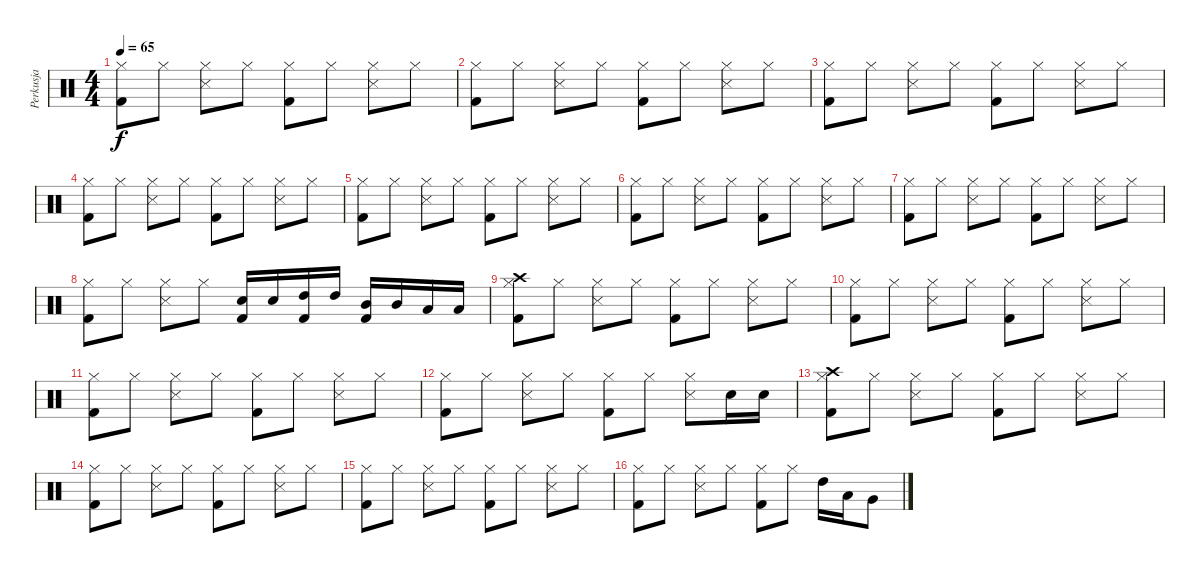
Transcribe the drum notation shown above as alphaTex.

\track ("Perkusja" "Perkusja") {instrument percussion}
\staff {score}
\articulation defaults
\ts (4 4)
\tempo 65
\clef neutral
\ks c
("Kick (hit) 2" "Hi-Hat (closed)").8{dy f} "Hi-Hat (closed)".8 ("Snare (side stick) 3" "Hi-Hat (closed)").8 "Hi-Hat (closed)".8 ("Kick (hit) 2" "Hi-Hat (closed)").8 "Hi-Hat (closed)".8 ("Snare (side stick) 3" "Hi-Hat (closed)").8 "Hi-Hat (closed)".8 |
("Kick (hit) 2" "Hi-Hat (closed)").8 "Hi-Hat (closed)".8 ("Snare (side stick) 3" "Hi-Hat (closed)").8 "Hi-Hat (closed)".8 ("Kick (hit) 2" "Hi-Hat (closed)").8 "Hi-Hat (closed)".8 ("Snare (side stick) 3" "Hi-Hat (closed)").8 "Hi-Hat (closed)".8 |
("Kick (hit) 2" "Hi-Hat (closed)").8 "Hi-Hat (closed)".8 ("Snare (side stick) 3" "Hi-Hat (closed)").8 "Hi-Hat (closed)".8 ("Kick (hit) 2" "Hi-Hat (closed)").8 "Hi-Hat (closed)".8 ("Snare (side stick) 3" "Hi-Hat (closed)").8 "Hi-Hat (closed)".8 |
("Kick (hit) 2" "Hi-Hat (closed)").8 "Hi-Hat (closed)".8 ("Snare (side stick) 3" "Hi-Hat (closed)").8 "Hi-Hat (closed)".8 ("Kick (hit) 2" "Hi-Hat (closed)").8 "Hi-Hat (closed)".8 ("Snare (side stick) 3" "Hi-Hat (closed)").8 "Hi-Hat (closed)".8 |
("Kick (hit) 2" "Hi-Hat (closed)").8 "Hi-Hat (closed)".8 ("Snare (side stick) 3" "Hi-Hat (closed)").8 "Hi-Hat (closed)".8 ("Kick (hit) 2" "Hi-Hat (closed)").8 "Hi-Hat (closed)".8 ("Snare (side stick) 3" "Hi-Hat (closed)").8 "Hi-Hat (closed)".8 |
("Kick (hit) 2" "Hi-Hat (closed)").8 "Hi-Hat (closed)".8 ("Snare (side stick) 3" "Hi-Hat (closed)").8 "Hi-Hat (closed)".8 ("Kick (hit) 2" "Hi-Hat (closed)").8 "Hi-Hat (closed)".8 ("Snare (side stick) 3" "Hi-Hat (closed)").8 "Hi-Hat (closed)".8 |
("Kick (hit) 2" "Hi-Hat (closed)").8 "Hi-Hat (closed)".8 ("Snare (side stick) 3" "Hi-Hat (closed)").8 "Hi-Hat (closed)".8 ("Kick (hit) 2" "Hi-Hat (closed)").8 "Hi-Hat (closed)".8 ("Snare (side stick) 3" "Hi-Hat (closed)").8 "Hi-Hat (closed)".8 |
("Kick (hit) 2" "Hi-Hat (closed)").8 "Hi-Hat (closed)".8 ("Snare (side stick) 3" "Hi-Hat (closed)").8 "Hi-Hat (closed)".8 ("Kick (hit) 2" "Snare (hit) 2").16 "Snare (hit) 2".16 ("Kick (hit) 2" "High Tom (hit)").16 "High Tom (hit)".16 ("Kick (hit) 2" "Mid Tom (hit)").16 "Mid Tom (hit)".16 "Low Tom (hit)".16 "Low Tom (hit)".16 |
("Kick (hit) 2" "Hi-Hat (closed)" "Crash high (hit)").8 "Hi-Hat (closed)".8 ("Snare (side stick) 3" "Hi-Hat (closed)").8 "Hi-Hat (closed)".8 ("Kick (hit) 2" "Hi-Hat (closed)").8 "Hi-Hat (closed)".8 ("Snare (side stick) 3" "Hi-Hat (closed)").8 "Hi-Hat (closed)".8 |
("Kick (hit) 2" "Hi-Hat (closed)").8 "Hi-Hat (closed)".8 ("Snare (side stick) 3" "Hi-Hat (closed)").8 "Hi-Hat (closed)".8 ("Kick (hit) 2" "Hi-Hat (closed)").8 "Hi-Hat (closed)".8 ("Snare (side stick) 3" "Hi-Hat (closed)").8 "Hi-Hat (closed)".8 |
("Kick (hit) 2" "Hi-Hat (closed)").8 "Hi-Hat (closed)".8 ("Snare (side stick) 3" "Hi-Hat (closed)").8 "Hi-Hat (closed)".8 ("Kick (hit) 2" "Hi-Hat (closed)").8 "Hi-Hat (closed)".8 ("Snare (side stick) 3" "Hi-Hat (closed)").8 "Hi-Hat (closed)".8 |
("Kick (hit) 2" "Hi-Hat (closed)").8 "Hi-Hat (closed)".8 ("Snare (side stick) 3" "Hi-Hat (closed)").8 "Hi-Hat (closed)".8 ("Kick (hit) 2" "Hi-Hat (closed)").8 "Hi-Hat (closed)".8 ("Snare (side stick) 3" "Hi-Hat (closed)").8 "Snare (hit) 2".16 "Snare (hit) 2".16 |
("Kick (hit) 2" "Hi-Hat (closed)" "Crash high (hit)").8 "Hi-Hat (closed)".8 ("Snare (side stick) 3" "Hi-Hat (closed)").8 "Hi-Hat (closed)".8 ("Kick (hit) 2" "Hi-Hat (closed)").8 "Hi-Hat (closed)".8 ("Snare (side stick) 3" "Hi-Hat (closed)").8 "Hi-Hat (closed)".8 |
("Kick (hit) 2" "Hi-Hat (closed)").8 "Hi-Hat (closed)".8 ("Snare (side stick) 3" "Hi-Hat (closed)").8 "Hi-Hat (closed)".8 ("Kick (hit) 2" "Hi-Hat (closed)").8 "Hi-Hat (closed)".8 ("Snare (side stick) 3" "Hi-Hat (closed)").8 "Hi-Hat (closed)".8 |
("Kick (hit) 2" "Hi-Hat (closed)").8 "Hi-Hat (closed)".8 ("Snare (side stick) 3" "Hi-Hat (closed)").8 "Hi-Hat (closed)".8 ("Kick (hit) 2" "Hi-Hat (closed)").8 "Hi-Hat (closed)".8 ("Snare (side stick) 3" "Hi-Hat (closed)").8 "Hi-Hat (closed)".8 |
("Kick (hit) 2" "Hi-Hat (closed)").8 "Hi-Hat (closed)".8 ("Snare (side stick) 3" "Hi-Hat (closed)").8 "Hi-Hat (closed)".8 ("Kick (hit) 2" "Hi-Hat (closed)").8 "Hi-Hat (closed)".8 "High Tom (hit)".16 "Low Tom (hit)".16 "Very Low Tom (hit)".8
